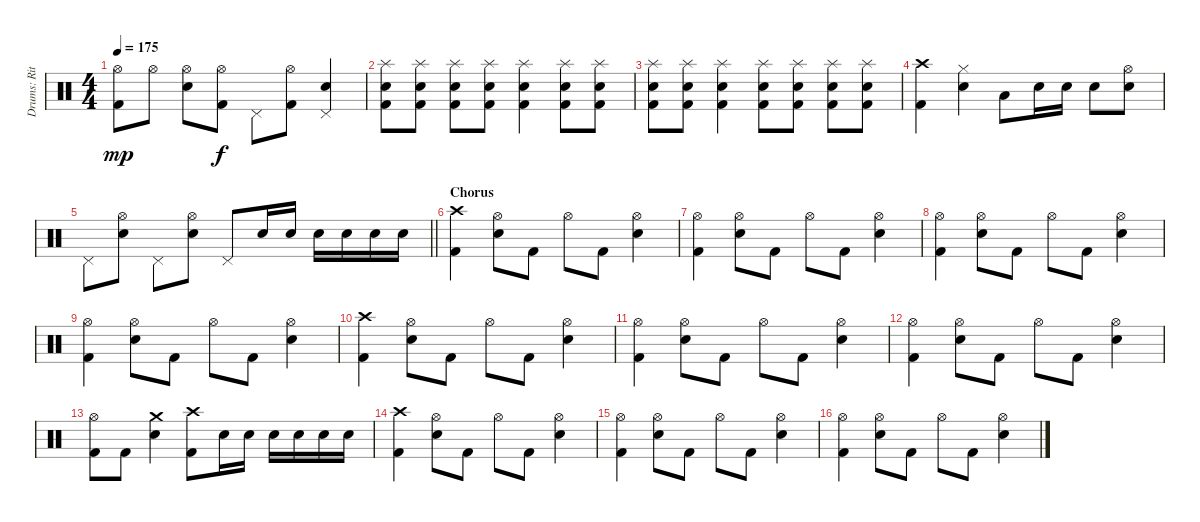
\track ("Drums: Ritsu Tainaka" "Drums: Rit") {instrument percussion}
\staff {score}
\articulation defaults
\ts (4 4)
\tempo 175
\clef neutral
\ks c
("Hi-Hat (open)" "Kick (hit) 2").8{dy mp} "Hi-Hat (open)".8 ("Hi-Hat (open)" "Snare (hit) 2").8 ("Hi-Hat (open)" "Kick (hit) 2").8{dy f} "Pedal Hi-Hat (hit)".8 ("Hi-Hat (open)" "Kick (hit) 2").8 ("Pedal Hi-Hat (hit)" "Snare (hit) 2").4 |
("Splash (hit)" "Snare (hit) 2" "Kick (hit) 2").8 ("Splash (hit)" "Snare (hit) 2" "Kick (hit) 2").8 ("Splash (hit)" "Snare (hit) 2" "Kick (hit) 2").8 ("Splash (hit)" "Snare (hit) 2" "Kick (hit) 2").8 ("Splash (hit)" "Snare (hit) 2" "Kick (hit) 2").4 ("Splash (hit)" "Snare (hit) 2" "Kick (hit) 2").8 ("Splash (hit)" "Snare (hit) 2" "Kick (hit) 2").8 |
("Splash (hit)" "Snare (hit) 2" "Kick (hit) 2").8 ("Splash (hit)" "Snare (hit) 2" "Kick (hit) 2").8 ("Splash (hit)" "Snare (hit) 2" "Kick (hit) 2").4 ("Splash (hit)" "Snare (hit) 2" "Kick (hit) 2").8 ("Splash (hit)" "Snare (hit) 2" "Kick (hit) 2").8 ("Splash (hit)" "Snare (hit) 2" "Kick (hit) 2").8 ("Splash (hit)" "Snare (hit) 2" "Kick (hit) 2").8 |
("Crash high (hit)" "Kick (hit) 2").4 ("Hi-Hat (closed)" "Snare (hit) 2").4 "Low Tom (hit)".8 "Snare (hit) 2".16 "Snare (hit) 2".16 "Snare (hit) 2".8 ("Hi-Hat (open)" "Snare (hit) 2").8 |
\barLineRight lightlight "Pedal Hi-Hat (hit)".8
("Hi-Hat (open)" "Snare (hit) 2").8 "Pedal Hi-Hat (hit)".8 ("Hi-Hat (open)" "Snare (hit) 2").8 "Pedal Hi-Hat (hit)".8 "Snare (hit) 2".16 "Snare (hit) 2".16 "Snare (hit) 2".16 "Snare (hit) 2".16 "Snare (hit) 2".16 "Snare (hit) 2".16 |
\section ("" "Chorus")
("Crash high (hit)" "Kick (hit) 2").4 ("Hi-Hat (open)" "Snare (hit) 2").8 "Kick (hit) 2".8 "Hi-Hat (open)".8 "Kick (hit) 2".8 ("Hi-Hat (open)" "Snare (hit) 2").4 |
("Hi-Hat (open)" "Kick (hit) 2").4 ("Hi-Hat (open)" "Snare (hit) 2").8 "Kick (hit) 2".8 "Hi-Hat (open)".8 "Kick (hit) 2".8 ("Hi-Hat (open)" "Snare (hit) 2").4 |
("Hi-Hat (open)" "Kick (hit) 2").4 ("Hi-Hat (open)" "Snare (hit) 2").8 "Kick (hit) 2".8 "Hi-Hat (open)".8 "Kick (hit) 2".8 ("Hi-Hat (open)" "Snare (hit) 2").4 |
("Hi-Hat (open)" "Kick (hit) 2").4 ("Hi-Hat (open)" "Snare (hit) 2").8 "Kick (hit) 2".8 "Hi-Hat (open)".8 "Kick (hit) 2".8 ("Hi-Hat (open)" "Snare (hit) 2").4 |
("Crash high (hit)" "Kick (hit) 2").4 ("Hi-Hat (open)" "Snare (hit) 2").8 "Kick (hit) 2".8 "Hi-Hat (open)".8 "Kick (hit) 2".8 ("Hi-Hat (open)" "Snare (hit) 2").4 |
("Hi-Hat (open)" "Kick (hit) 2").4 ("Hi-Hat (open)" "Snare (hit) 2").8 "Kick (hit) 2".8 "Hi-Hat (open)".8 "Kick (hit) 2".8 ("Hi-Hat (open)" "Snare (hit) 2").4 |
("Hi-Hat (open)" "Kick (hit) 2").4 ("Hi-Hat (open)" "Snare (hit) 2").8 "Kick (hit) 2".8 "Hi-Hat (open)".8 "Kick (hit) 2".8 ("Hi-Hat (open)" "Snare (hit) 2").4 |
("Hi-Hat (open)" "Kick (hit) 2").8 "Kick (hit) 2".8 ("Crash medium (hit)" "Snare (hit) 2").4 ("Crash high (hit)" "Kick (hit) 2").8 "Snare (hit) 2".16 "Snare (hit) 2".16 "Snare (hit) 2".16 "Snare (hit) 2".16 "Snare (hit) 2".16 "Snare (hit) 2".16 |
("Crash high (hit)" "Kick (hit) 2").4 ("Hi-Hat (open)" "Snare (hit) 2").8 "Kick (hit) 2".8 "Hi-Hat (open)".8 "Kick (hit) 2".8 ("Hi-Hat (open)" "Snare (hit) 2").4 |
("Hi-Hat (open)" "Kick (hit) 2").4 ("Hi-Hat (open)" "Snare (hit) 2").8 "Kick (hit) 2".8 "Hi-Hat (open)".8 "Kick (hit) 2".8 ("Hi-Hat (open)" "Snare (hit) 2").4 |
("Hi-Hat (open)" "Kick (hit) 2").4 ("Hi-Hat (open)" "Snare (hit) 2").8 "Kick (hit) 2".8 "Hi-Hat (open)".8 "Kick (hit) 2".8 ("Hi-Hat (open)" "Snare (hit) 2").4
